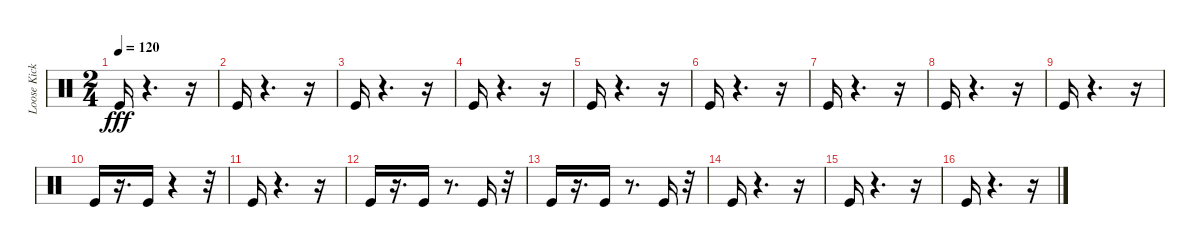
\track ("Loose Kick (1) (1) (1) (1)" "Loose Kick") {instrument percussion}
\staff {score}
\articulation defaults
\ts (2 4)
\tempo 120
\clef neutral
\ks c "Kick (hit)".16{dy fff}
r.4{d} r.16 |
"Kick (hit)".16 r.4{d} r.16 |
"Kick (hit)".16 r.4{d} r.16 |
"Kick (hit)".16 r.4{d} r.16 |
"Kick (hit)".16 r.4{d} r.16 |
"Kick (hit)".16 r.4{d} r.16 |
"Kick (hit)".16 r.4{d} r.16 |
"Kick (hit)".16 r.4{d} r.16 |
"Kick (hit)".16 r.4{d} r.16 |
"Kick (hit)".16 r.16{d} "Kick (hit)".16 r.4 r.32 |
"Kick (hit)".16 r.4{d} r.16 |
"Kick (hit)".16 r.16{d} "Kick (hit)".16 r.8{d} "Kick (hit)".16 r.32 |
"Kick (hit)".16 r.16{d} "Kick (hit)".16 r.8{d} "Kick (hit)".16 r.32 |
"Kick (hit)".16 r.4{d} r.16 |
"Kick (hit)".16 r.4{d} r.16 |
"Kick (hit)".16 r.4{d} r.16
